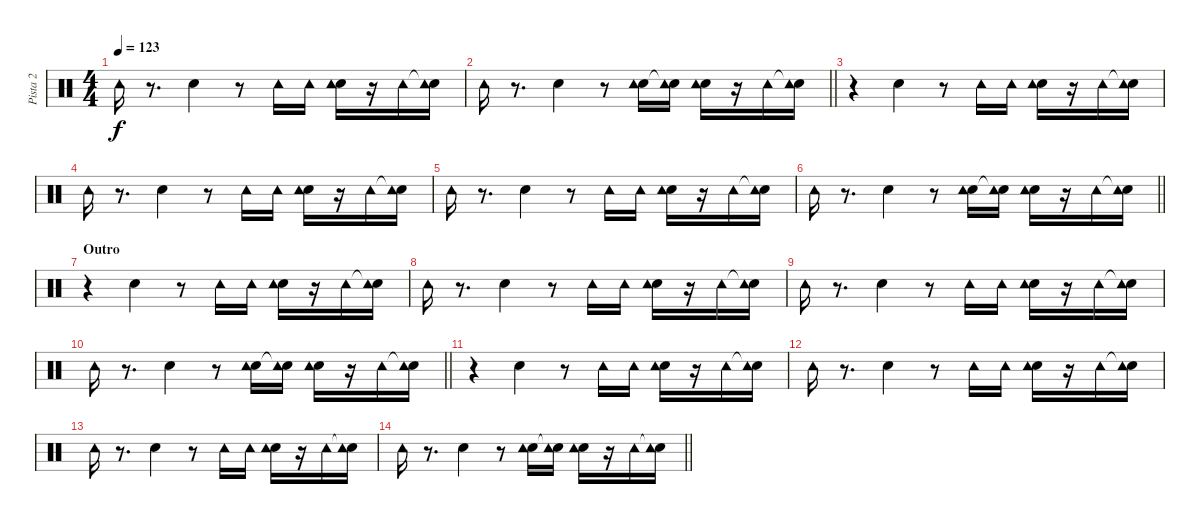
\track ("Pista 2" "Pista 2") {instrument percussion}
\staff {score}
\articulation defaults
\ts (4 4)
\tempo 123
\clef neutral
\ks c "Tambourine (hit)".16{dy f}
r.8{d} "Hand Clap (hit)".4 r.8 "Tambourine (hit)".16 "Tambourine (hit)".16 ("Hand Clap (hit)" "Tambourine (hit)").16 r.16 "Tambourine (hit)".16 ("Snare (hit)"{t} "Tambourine (hit)").16 |
\barLineRight lightlight "Tambourine (hit)".16
r.8{d} "Hand Clap (hit)".4 r.8 ("Hand Clap (hit)" "Tambourine (hit)").16 ("Snare (hit)"{t} "Tambourine (hit)").16 ("Hand Clap (hit)" "Tambourine (hit)").16 r.16 "Tambourine (hit)".16 ("Snare (hit)"{t} "Tambourine (hit)").16 |
r.4 "Hand Clap (hit)".4 r.8 "Tambourine (hit)".16 "Tambourine (hit)".16 ("Hand Clap (hit)" "Tambourine (hit)").16 r.16 "Tambourine (hit)".16 ("Snare (hit)"{t} "Tambourine (hit)").16 |
"Tambourine (hit)".16 r.8{d} "Hand Clap (hit)".4 r.8 "Tambourine (hit)".16 "Tambourine (hit)".16 ("Hand Clap (hit)" "Tambourine (hit)").16 r.16 "Tambourine (hit)".16 ("Snare (hit)"{t} "Tambourine (hit)").16 |
"Tambourine (hit)".16 r.8{d} "Hand Clap (hit)".4 r.8 "Tambourine (hit)".16 "Tambourine (hit)".16 ("Hand Clap (hit)" "Tambourine (hit)").16 r.16 "Tambourine (hit)".16 ("Snare (hit)"{t} "Tambourine (hit)").16 |
\barLineRight lightlight "Tambourine (hit)".16
r.8{d} "Hand Clap (hit)".4 r.8 ("Hand Clap (hit)" "Tambourine (hit)").16 ("Snare (hit)"{t} "Tambourine (hit)").16 ("Hand Clap (hit)" "Tambourine (hit)").16 r.16 "Tambourine (hit)".16 ("Snare (hit)"{t} "Tambourine (hit)").16 |
\section ("" "Outro")
r.4 "Hand Clap (hit)".4 r.8 "Tambourine (hit)".16 "Tambourine (hit)".16 ("Hand Clap (hit)" "Tambourine (hit)").16 r.16 "Tambourine (hit)".16 ("Snare (hit)"{t} "Tambourine (hit)").16 |
"Tambourine (hit)".16 r.8{d} "Hand Clap (hit)".4 r.8 "Tambourine (hit)".16 "Tambourine (hit)".16 ("Hand Clap (hit)" "Tambourine (hit)").16 r.16 "Tambourine (hit)".16 ("Snare (hit)"{t} "Tambourine (hit)").16 |
"Tambourine (hit)".16 r.8{d} "Hand Clap (hit)".4 r.8 "Tambourine (hit)".16 "Tambourine (hit)".16 ("Hand Clap (hit)" "Tambourine (hit)").16 r.16 "Tambourine (hit)".16 ("Snare (hit)"{t} "Tambourine (hit)").16 |
\barLineRight lightlight "Tambourine (hit)".16
r.8{d} "Hand Clap (hit)".4 r.8 ("Hand Clap (hit)" "Tambourine (hit)").16 ("Snare (hit)"{t} "Tambourine (hit)").16 ("Hand Clap (hit)" "Tambourine (hit)").16 r.16 "Tambourine (hit)".16 ("Snare (hit)"{t} "Tambourine (hit)").16 |
r.4 "Hand Clap (hit)".4 r.8 "Tambourine (hit)".16 "Tambourine (hit)".16 ("Hand Clap (hit)" "Tambourine (hit)").16 r.16 "Tambourine (hit)".16 ("Snare (hit)"{t} "Tambourine (hit)").16 |
"Tambourine (hit)".16 r.8{d} "Hand Clap (hit)".4 r.8 "Tambourine (hit)".16 "Tambourine (hit)".16 ("Hand Clap (hit)" "Tambourine (hit)").16 r.16 "Tambourine (hit)".16 ("Snare (hit)"{t} "Tambourine (hit)").16 |
"Tambourine (hit)".16 r.8{d} "Hand Clap (hit)".4 r.8 "Tambourine (hit)".16 "Tambourine (hit)".16 ("Hand Clap (hit)" "Tambourine (hit)").16 r.16 "Tambourine (hit)".16 ("Snare (hit)"{t} "Tambourine (hit)").16 |
\barLineRight lightlight "Tambourine (hit)".16
r.8{d} "Hand Clap (hit)".4 r.8 ("Hand Clap (hit)" "Tambourine (hit)").16 ("Snare (hit)"{t} "Tambourine (hit)").16 ("Hand Clap (hit)" "Tambourine (hit)").16 r.16 "Tambourine (hit)".16 ("Snare (hit)"{t} "Tambourine (hit)").16
